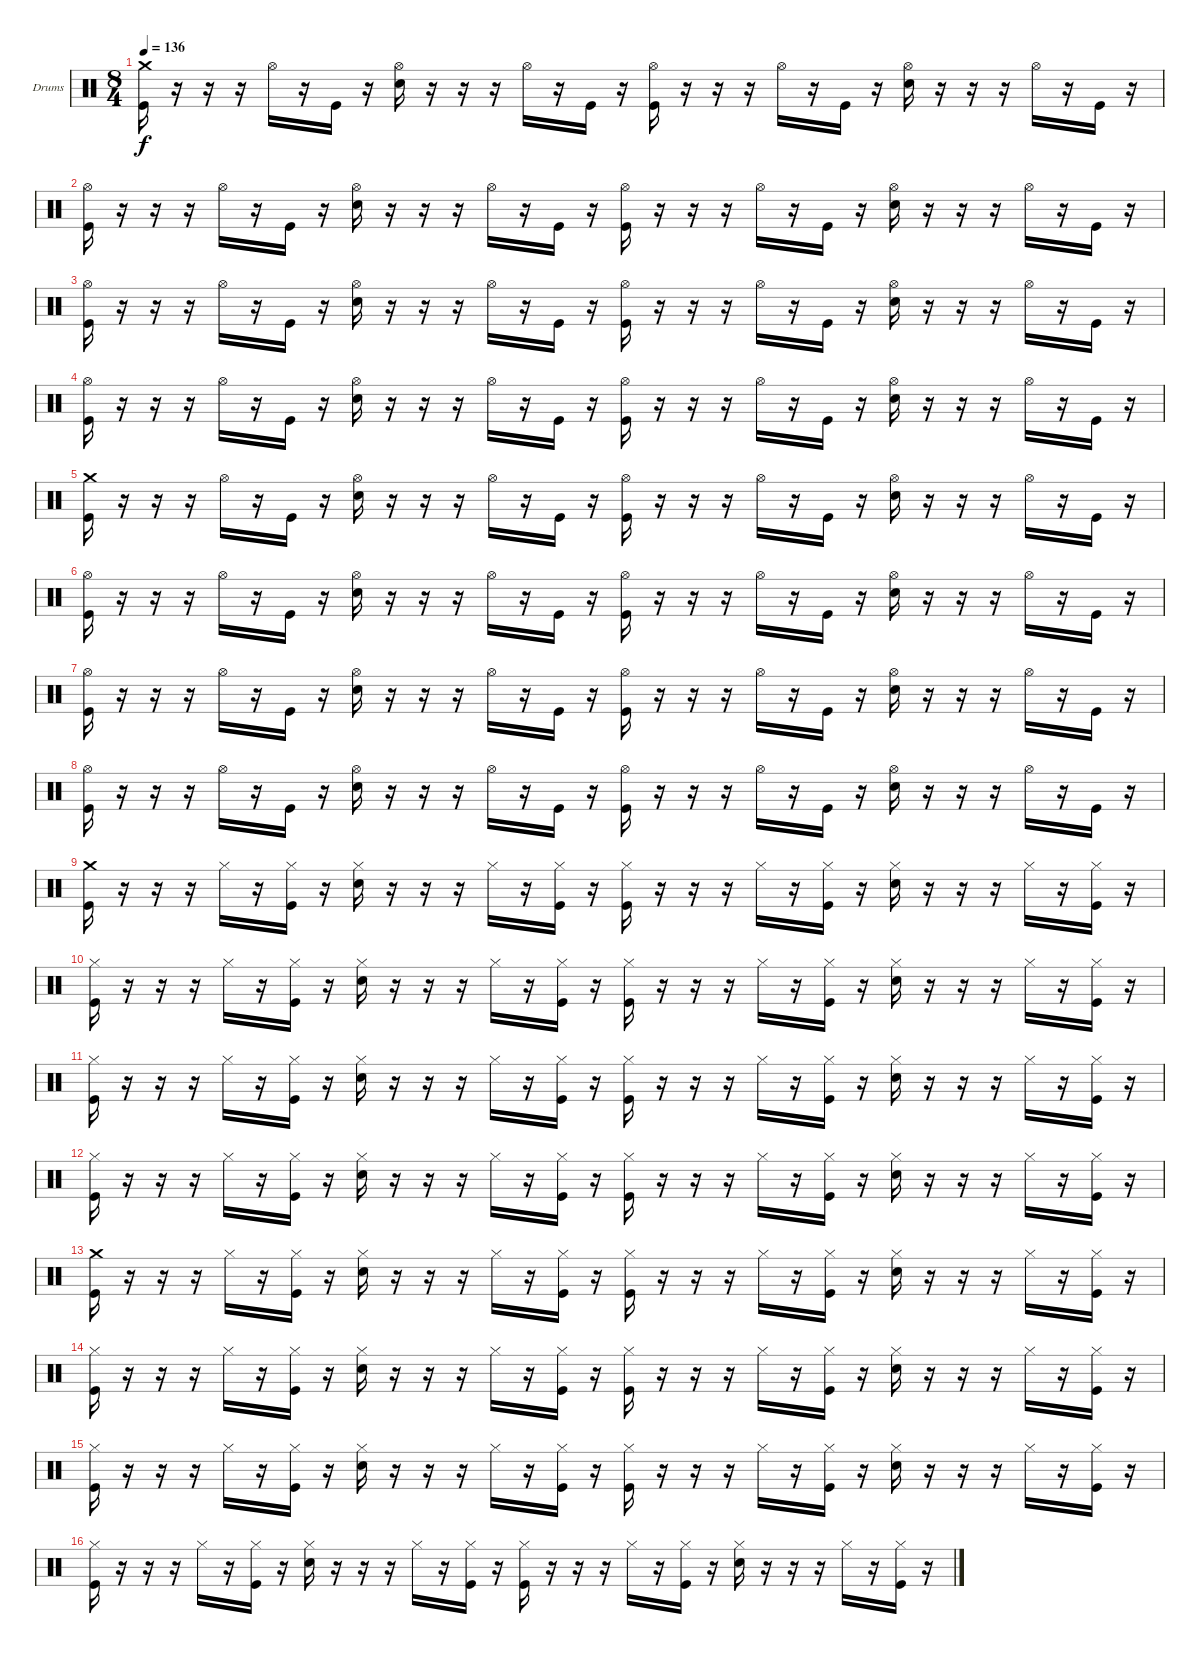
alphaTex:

\defaultSystemsLayout 4
\bracketExtendMode groupsimilarinstruments
\firstSystemTrackNameOrientation horizontal
\otherSystemsTrackNameOrientation horizontal
\track ("Drumkit" "Drums") {instrument percussion}
\staff {score}
\articulation defaults
\ts (8 4)
\tempo 136
\clef neutral
\ks c
("Kick (hit)" "Crash medium (hit)").16{dy f} r.16 r.16 r.16 "Hi-Hat (open)".16 r.16 "Kick (hit)".16 r.16 ("Snare (hit) 2" "Hi-Hat (open)").16 r.16 r.16 r.16 "Hi-Hat (open)".16 r.16 "Kick (hit)".16 r.16 ("Kick (hit)" "Hi-Hat (open)").16 r.16 r.16 r.16 "Hi-Hat (open)".16 r.16 "Kick (hit)".16 r.16 ("Snare (hit) 2" "Hi-Hat (open)").16 r.16 r.16 r.16 "Hi-Hat (open)".16 r.16 "Kick (hit)".16 r.16 |
("Kick (hit)" "Hi-Hat (open)").16 r.16 r.16 r.16 "Hi-Hat (open)".16 r.16 "Kick (hit)".16 r.16 ("Snare (hit) 2" "Hi-Hat (open)").16 r.16 r.16 r.16 "Hi-Hat (open)".16 r.16 "Kick (hit)".16 r.16 ("Kick (hit)" "Hi-Hat (open)").16 r.16 r.16 r.16 "Hi-Hat (open)".16 r.16 "Kick (hit)".16 r.16 ("Snare (hit) 2" "Hi-Hat (open)").16 r.16 r.16 r.16 "Hi-Hat (open)".16 r.16 "Kick (hit)".16 r.16 |
("Kick (hit)" "Hi-Hat (open)").16 r.16 r.16 r.16 "Hi-Hat (open)".16 r.16 "Kick (hit)".16 r.16 ("Snare (hit) 2" "Hi-Hat (open)").16 r.16 r.16 r.16 "Hi-Hat (open)".16 r.16 "Kick (hit)".16 r.16 ("Kick (hit)" "Hi-Hat (open)").16 r.16 r.16 r.16 "Hi-Hat (open)".16 r.16 "Kick (hit)".16 r.16 ("Snare (hit) 2" "Hi-Hat (open)").16 r.16 r.16 r.16 "Hi-Hat (open)".16 r.16 "Kick (hit)".16 r.16 |
("Kick (hit)" "Hi-Hat (open)").16 r.16 r.16 r.16 "Hi-Hat (open)".16 r.16 "Kick (hit)".16 r.16 ("Snare (hit) 2" "Hi-Hat (open)").16 r.16 r.16 r.16 "Hi-Hat (open)".16 r.16 "Kick (hit)".16 r.16 ("Kick (hit)" "Hi-Hat (open)").16 r.16 r.16 r.16 "Hi-Hat (open)".16 r.16 "Kick (hit)".16 r.16 ("Snare (hit) 2" "Hi-Hat (open)").16 r.16 r.16 r.16 "Hi-Hat (open)".16 r.16 "Kick (hit)".16 r.16 |
("Kick (hit)" "Crash medium (hit)").16 r.16 r.16 r.16 "Hi-Hat (open)".16 r.16 "Kick (hit)".16 r.16 ("Snare (hit) 2" "Hi-Hat (open)").16 r.16 r.16 r.16 "Hi-Hat (open)".16 r.16 "Kick (hit)".16 r.16 ("Kick (hit)" "Hi-Hat (open)").16 r.16 r.16 r.16 "Hi-Hat (open)".16 r.16 "Kick (hit)".16 r.16 ("Snare (hit) 2" "Hi-Hat (open)").16 r.16 r.16 r.16 "Hi-Hat (open)".16 r.16 "Kick (hit)".16 r.16 |
("Kick (hit)" "Hi-Hat (open)").16 r.16 r.16 r.16 "Hi-Hat (open)".16 r.16 "Kick (hit)".16 r.16 ("Snare (hit) 2" "Hi-Hat (open)").16 r.16 r.16 r.16 "Hi-Hat (open)".16 r.16 "Kick (hit)".16 r.16 ("Kick (hit)" "Hi-Hat (open)").16 r.16 r.16 r.16 "Hi-Hat (open)".16 r.16 "Kick (hit)".16 r.16 ("Snare (hit) 2" "Hi-Hat (open)").16 r.16 r.16 r.16 "Hi-Hat (open)".16 r.16 "Kick (hit)".16 r.16 |
("Kick (hit)" "Hi-Hat (open)").16 r.16 r.16 r.16 "Hi-Hat (open)".16 r.16 "Kick (hit)".16 r.16 ("Snare (hit) 2" "Hi-Hat (open)").16 r.16 r.16 r.16 "Hi-Hat (open)".16 r.16 "Kick (hit)".16 r.16 ("Kick (hit)" "Hi-Hat (open)").16 r.16 r.16 r.16 "Hi-Hat (open)".16 r.16 "Kick (hit)".16 r.16 ("Snare (hit) 2" "Hi-Hat (open)").16 r.16 r.16 r.16 "Hi-Hat (open)".16 r.16 "Kick (hit)".16 r.16 |
("Kick (hit)" "Hi-Hat (open)").16 r.16 r.16 r.16 "Hi-Hat (open)".16 r.16 "Kick (hit)".16 r.16 ("Snare (hit) 2" "Hi-Hat (open)").16 r.16 r.16 r.16 "Hi-Hat (open)".16 r.16 "Kick (hit)".16 r.16 ("Kick (hit)" "Hi-Hat (open)").16 r.16 r.16 r.16 "Hi-Hat (open)".16 r.16 "Kick (hit)".16 r.16 ("Snare (hit) 2" "Hi-Hat (open)").16 r.16 r.16 r.16 "Hi-Hat (open)".16 r.16 "Kick (hit)".16 r.16 |
("Kick (hit)" "Crash medium (hit)").16 r.16 r.16 r.16 "Hi-Hat (closed)".16 r.16 ("Kick (hit)" "Hi-Hat (closed)").16 r.16 ("Snare (hit) 2" "Hi-Hat (closed)").16 r.16 r.16 r.16 "Hi-Hat (closed)".16 r.16 ("Kick (hit)" "Hi-Hat (closed)").16 r.16 ("Kick (hit)" "Hi-Hat (closed)").16 r.16 r.16 r.16 "Hi-Hat (closed)".16 r.16 ("Kick (hit)" "Hi-Hat (closed)").16 r.16 ("Snare (hit) 2" "Hi-Hat (closed)").16 r.16 r.16 r.16 "Hi-Hat (closed)".16 r.16 ("Kick (hit)" "Hi-Hat (closed)").16 r.16 |
("Kick (hit)" "Hi-Hat (closed)").16 r.16 r.16 r.16 "Hi-Hat (closed)".16 r.16 ("Kick (hit)" "Hi-Hat (closed)").16 r.16 ("Snare (hit) 2" "Hi-Hat (closed)").16 r.16 r.16 r.16 "Hi-Hat (closed)".16 r.16 ("Kick (hit)" "Hi-Hat (closed)").16 r.16 ("Kick (hit)" "Hi-Hat (closed)").16 r.16 r.16 r.16 "Hi-Hat (closed)".16 r.16 ("Kick (hit)" "Hi-Hat (closed)").16 r.16 ("Snare (hit) 2" "Hi-Hat (closed)").16 r.16 r.16 r.16 "Hi-Hat (closed)".16 r.16 ("Kick (hit)" "Hi-Hat (closed)").16 r.16 |
("Kick (hit)" "Hi-Hat (closed)").16 r.16 r.16 r.16 "Hi-Hat (closed)".16 r.16 ("Kick (hit)" "Hi-Hat (closed)").16 r.16 ("Snare (hit) 2" "Hi-Hat (closed)").16 r.16 r.16 r.16 "Hi-Hat (closed)".16 r.16 ("Kick (hit)" "Hi-Hat (closed)").16 r.16 ("Kick (hit)" "Hi-Hat (closed)").16 r.16 r.16 r.16 "Hi-Hat (closed)".16 r.16 ("Kick (hit)" "Hi-Hat (closed)").16 r.16 ("Snare (hit) 2" "Hi-Hat (closed)").16 r.16 r.16 r.16 "Hi-Hat (closed)".16 r.16 ("Kick (hit)" "Hi-Hat (closed)").16 r.16 |
("Kick (hit)" "Hi-Hat (closed)").16 r.16 r.16 r.16 "Hi-Hat (closed)".16 r.16 ("Kick (hit)" "Hi-Hat (closed)").16 r.16 ("Snare (hit) 2" "Hi-Hat (closed)").16 r.16 r.16 r.16 "Hi-Hat (closed)".16 r.16 ("Kick (hit)" "Hi-Hat (closed)").16 r.16 ("Kick (hit)" "Hi-Hat (closed)").16 r.16 r.16 r.16 "Hi-Hat (closed)".16 r.16 ("Kick (hit)" "Hi-Hat (closed)").16 r.16 ("Snare (hit) 2" "Hi-Hat (closed)").16 r.16 r.16 r.16 "Hi-Hat (closed)".16 r.16 ("Kick (hit)" "Hi-Hat (closed)").16 r.16 |
("Kick (hit)" "Crash medium (hit)").16 r.16 r.16 r.16 "Hi-Hat (closed)".16 r.16 ("Kick (hit)" "Hi-Hat (closed)").16 r.16 ("Snare (hit) 2" "Hi-Hat (closed)").16 r.16 r.16 r.16 "Hi-Hat (closed)".16 r.16 ("Kick (hit)" "Hi-Hat (closed)").16 r.16 ("Kick (hit)" "Hi-Hat (closed)").16 r.16 r.16 r.16 "Hi-Hat (closed)".16 r.16 ("Kick (hit)" "Hi-Hat (closed)").16 r.16 ("Snare (hit) 2" "Hi-Hat (closed)").16 r.16 r.16 r.16 "Hi-Hat (closed)".16 r.16 ("Kick (hit)" "Hi-Hat (closed)").16 r.16 |
("Kick (hit)" "Hi-Hat (closed)").16 r.16 r.16 r.16 "Hi-Hat (closed)".16 r.16 ("Kick (hit)" "Hi-Hat (closed)").16 r.16 ("Snare (hit) 2" "Hi-Hat (closed)").16 r.16 r.16 r.16 "Hi-Hat (closed)".16 r.16 ("Kick (hit)" "Hi-Hat (closed)").16 r.16 ("Kick (hit)" "Hi-Hat (closed)").16 r.16 r.16 r.16 "Hi-Hat (closed)".16 r.16 ("Kick (hit)" "Hi-Hat (closed)").16 r.16 ("Snare (hit) 2" "Hi-Hat (closed)").16 r.16 r.16 r.16 "Hi-Hat (closed)".16 r.16 ("Kick (hit)" "Hi-Hat (closed)").16 r.16 |
("Kick (hit)" "Hi-Hat (closed)").16 r.16 r.16 r.16 "Hi-Hat (closed)".16 r.16 ("Kick (hit)" "Hi-Hat (closed)").16 r.16 ("Snare (hit) 2" "Hi-Hat (closed)").16 r.16 r.16 r.16 "Hi-Hat (closed)".16 r.16 ("Kick (hit)" "Hi-Hat (closed)").16 r.16 ("Kick (hit)" "Hi-Hat (closed)").16 r.16 r.16 r.16 "Hi-Hat (closed)".16 r.16 ("Kick (hit)" "Hi-Hat (closed)").16 r.16 ("Snare (hit) 2" "Hi-Hat (closed)").16 r.16 r.16 r.16 "Hi-Hat (closed)".16 r.16 ("Kick (hit)" "Hi-Hat (closed)").16 r.16 |
("Kick (hit)" "Hi-Hat (closed)").16 r.16 r.16 r.16 "Hi-Hat (closed)".16 r.16 ("Kick (hit)" "Hi-Hat (closed)").16 r.16 ("Snare (hit) 2" "Hi-Hat (closed)").16 r.16 r.16 r.16 "Hi-Hat (closed)".16 r.16 ("Kick (hit)" "Hi-Hat (closed)").16 r.16 ("Kick (hit)" "Hi-Hat (closed)").16 r.16 r.16 r.16 "Hi-Hat (closed)".16 r.16 ("Kick (hit)" "Hi-Hat (closed)").16 r.16 ("Snare (hit) 2" "Hi-Hat (closed)").16 r.16 r.16 r.16 "Hi-Hat (closed)".16 r.16 ("Kick (hit)" "Hi-Hat (closed)").16 r.16
